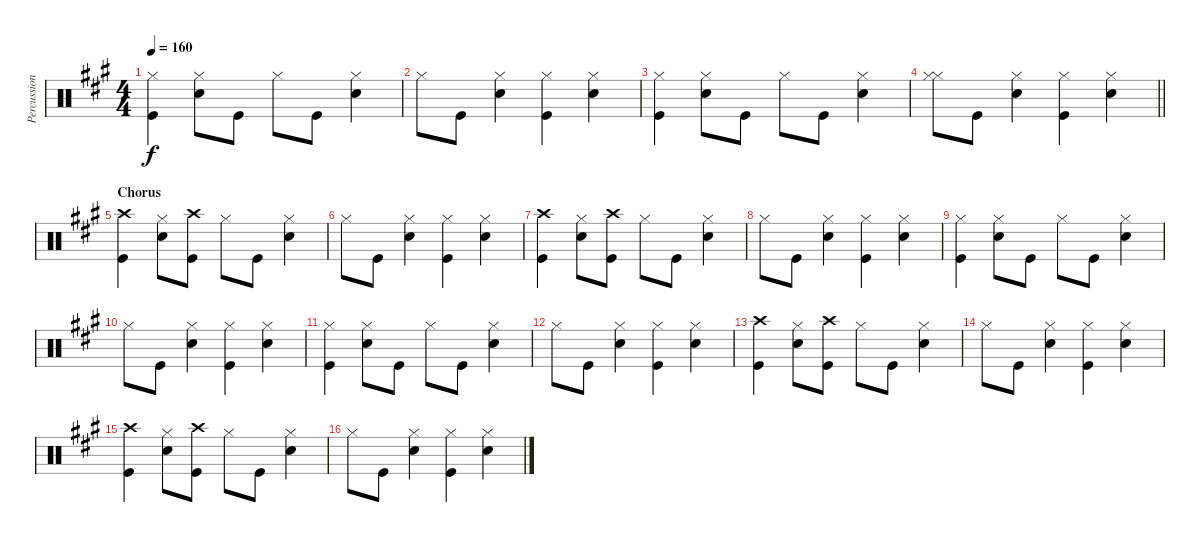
\track ("Percussion" "Percussion") {instrument percussion}
\staff {score}
\articulation defaults
\ts (4 4)
\tempo 160
\clef neutral
\ks a
("Kick (hit)" "Hi-Hat (closed)").4{dy f} ("Snare (hit) 2" "Hi-Hat (closed)").8 "Kick (hit)".8 "Hi-Hat (closed)".8 "Kick (hit)".8 ("Snare (hit) 2" "Hi-Hat (closed)").4 |
"Hi-Hat (closed)".8 "Kick (hit)".8 ("Snare (hit) 2" "Hi-Hat (closed)").4 ("Kick (hit)" "Hi-Hat (closed)").4 ("Snare (hit) 2" "Hi-Hat (closed)").4 |
("Kick (hit)" "Hi-Hat (closed)").4 ("Snare (hit) 2" "Hi-Hat (closed)").8 "Kick (hit)".8 "Hi-Hat (closed)".8 "Kick (hit)".8 ("Snare (hit) 2" "Hi-Hat (closed)").4 |
\barLineRight lightlight
("Hi-Hat (closed)" "Hi-Hat (closed)").8 "Kick (hit)".8 ("Snare (hit) 2" "Hi-Hat (closed)").4 ("Kick (hit)" "Hi-Hat (closed)").4 ("Snare (hit) 2" "Hi-Hat (closed)").4 |
\section ("" "Chorus")
("Kick (hit)" "Crash high (hit)").4 ("Snare (hit) 2" "Hi-Hat (closed)").8 ("Kick (hit)" "Crash high (hit)").8 "Hi-Hat (closed)".8 "Kick (hit)".8 ("Snare (hit) 2" "Hi-Hat (closed)").4 |
"Hi-Hat (closed)".8 "Kick (hit)".8 ("Snare (hit) 2" "Hi-Hat (closed)").4 ("Kick (hit)" "Hi-Hat (closed)").4 ("Snare (hit) 2" "Hi-Hat (closed)").4 |
("Kick (hit)" "Crash high (hit)").4 ("Snare (hit) 2" "Hi-Hat (closed)").8 ("Kick (hit)" "Crash high (hit)").8 "Hi-Hat (closed)".8 "Kick (hit)".8 ("Snare (hit) 2" "Hi-Hat (closed)").4 |
"Hi-Hat (closed)".8 "Kick (hit)".8 ("Snare (hit) 2" "Hi-Hat (closed)").4 ("Kick (hit)" "Hi-Hat (closed)").4 ("Snare (hit) 2" "Hi-Hat (closed)").4 |
("Hi-Hat (closed)" "Kick (hit)").4 ("Snare (hit) 2" "Hi-Hat (closed)").8 "Kick (hit)".8 "Hi-Hat (closed)".8 "Kick (hit)".8 ("Snare (hit) 2" "Hi-Hat (closed)").4 |
"Hi-Hat (closed)".8 "Kick (hit)".8 ("Snare (hit) 2" "Hi-Hat (closed)").4 ("Kick (hit)" "Hi-Hat (closed)").4 ("Snare (hit) 2" "Hi-Hat (closed)").4 |
("Hi-Hat (closed)" "Kick (hit)").4 ("Snare (hit) 2" "Hi-Hat (closed)").8 "Kick (hit)".8 "Hi-Hat (closed)".8 "Kick (hit)".8 ("Snare (hit) 2" "Hi-Hat (closed)").4 |
"Hi-Hat (closed)".8 "Kick (hit)".8 ("Snare (hit) 2" "Hi-Hat (closed)").4 ("Kick (hit)" "Hi-Hat (closed)").4 ("Snare (hit) 2" "Hi-Hat (closed)").4 |
("Kick (hit)" "Crash high (hit)").4 ("Snare (hit) 2" "Hi-Hat (closed)").8 ("Kick (hit)" "Crash high (hit)").8 "Hi-Hat (closed)".8 "Kick (hit)".8 ("Snare (hit) 2" "Hi-Hat (closed)").4 |
"Hi-Hat (closed)".8 "Kick (hit)".8 ("Snare (hit) 2" "Hi-Hat (closed)").4 ("Kick (hit)" "Hi-Hat (closed)").4 ("Snare (hit) 2" "Hi-Hat (closed)").4 |
("Crash high (hit)" "Kick (hit)").4 ("Snare (hit) 2" "Hi-Hat (closed)").8 ("Kick (hit)" "Crash high (hit)").8 "Hi-Hat (closed)".8 "Kick (hit)".8 ("Snare (hit) 2" "Hi-Hat (closed)").4 |
"Hi-Hat (closed)".8 "Kick (hit)".8 ("Snare (hit) 2" "Hi-Hat (closed)").4 ("Kick (hit)" "Hi-Hat (closed)").4 ("Snare (hit) 2" "Hi-Hat (closed)").4
